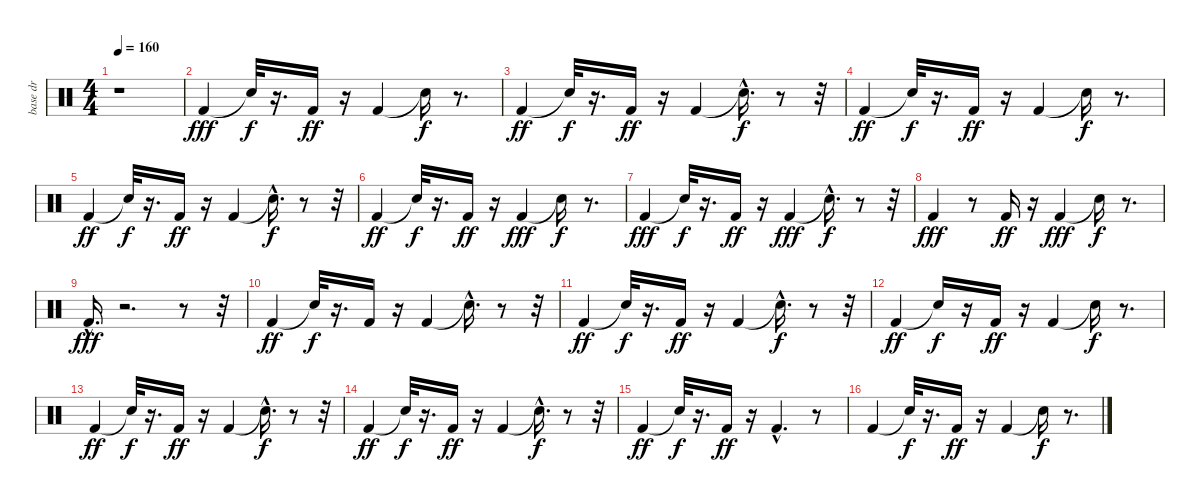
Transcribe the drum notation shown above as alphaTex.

\track ("base dr" "base dr") {instrument percussion}
\staff {score}
\articulation defaults
\ts (4 4)
\tempo 160
\clef neutral
\ks c
r.1{dy fff} |
"Kick (hit) 2".4 "Snare (hit)"{t}.32{dy f} r.16{d} "Kick (hit) 2".16{dy ff} r.16 "Kick (hit) 2".4 "Snare (hit)"{t}.16{dy f} r.8{d} |
"Kick (hit) 2".4{dy ff} "Snare (hit)"{t}.32{dy f} r.16{d} "Kick (hit) 2".16{dy ff} r.16 "Kick (hit) 2".4 "Snare (hit)"{hac t}.16{d dy f} r.8 r.32 |
"Kick (hit) 2".4{dy ff} "Snare (hit)"{t}.32{dy f} r.16{d} "Kick (hit) 2".16{dy ff} r.16 "Kick (hit) 2".4 "Snare (hit)"{t}.16{dy f} r.8{d} |
"Kick (hit) 2".4{dy ff} "Snare (hit)"{t}.32{dy f} r.16{d} "Kick (hit) 2".16{dy ff} r.16 "Kick (hit) 2".4 "Snare (hit)"{hac t}.16{d dy f} r.8 r.32 |
"Kick (hit) 2".4{dy ff} "Snare (hit)"{t}.32{dy f} r.16{d} "Kick (hit) 2".16{dy ff} r.16 "Kick (hit) 2".4{dy fff} "Snare (hit)"{t}.16{dy f} r.8{d} |
"Kick (hit) 2".4{dy fff} "Snare (hit)"{t}.32{dy f} r.16{d} "Kick (hit) 2".16{dy ff} r.16 "Kick (hit) 2".4{dy fff} "Snare (hit)"{hac t}.16{d dy f} r.8 r.32 |
"Kick (hit) 2".4{dy fff} r.8 "Kick (hit) 2".16{dy ff} r.16 "Kick (hit) 2".4{dy fff} "Snare (hit)"{t}.16{dy f} r.8{d} |
"Kick (hit) 2"{hac}.16{d dy fff} r.2{d} r.8 r.32 |
"Kick (hit) 2".4{dy ff} "Snare (hit)"{t}.32{dy f} r.16{d} "Kick (hit) 2".16 r.16 "Kick (hit) 2".4 "Snare (hit)"{hac t}.16{d} r.8 r.32 |
"Kick (hit) 2".4{dy ff} "Snare (hit)"{t}.32{dy f} r.16{d} "Kick (hit) 2".16{dy ff} r.16 "Kick (hit) 2".4 "Snare (hit)"{hac t}.16{d dy f} r.8 r.32 |
"Kick (hit) 2".4{dy ff} "Snare (hit)"{t}.16{dy f} r.16 "Kick (hit) 2".16{dy ff} r.16 "Kick (hit) 2".4 "Snare (hit)"{t}.16{dy f} r.8{d} |
"Kick (hit) 2".4{dy ff} "Snare (hit)"{t}.32{dy f} r.16{d} "Kick (hit) 2".16{dy ff} r.16 "Kick (hit) 2".4 "Snare (hit)"{hac t}.16{d dy f} r.8 r.32 |
"Kick (hit) 2".4{dy ff} "Snare (hit)"{t}.32{dy f} r.16{d} "Kick (hit) 2".16{dy ff} r.16 "Kick (hit) 2".4 "Snare (hit)"{hac t}.16{d dy f} r.8 r.32 |
"Kick (hit) 2".4{dy ff} "Snare (hit)"{t}.32{dy f} r.16{d} "Kick (hit) 2".16{dy ff} r.16 "Kick (hit) 2"{hac}.4{d} r.8 |
"Kick (hit) 2".4 "Snare (hit)"{t}.32{dy f} r.16{d} "Kick (hit) 2".16{dy ff} r.16 "Kick (hit) 2".4 "Snare (hit)"{t}.16{dy f} r.8{d}
